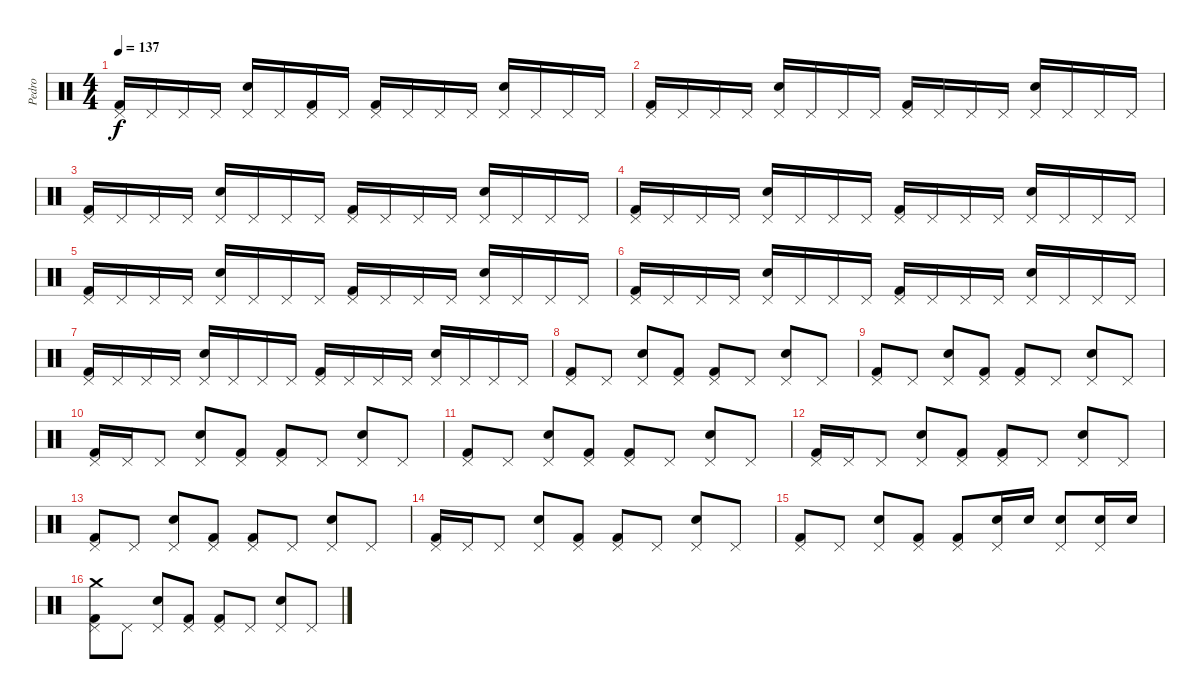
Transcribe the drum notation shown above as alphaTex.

\track ("Pedro" "Pedro") {instrument percussion}
\staff {score}
\articulation defaults
\ts (4 4)
\tempo 137
\clef neutral
\ks c
("Pedal Hi-Hat (hit)" "Kick (hit) 2").16{dy f} "Pedal Hi-Hat (hit)".16 "Pedal Hi-Hat (hit)".16 "Pedal Hi-Hat (hit)".16 ("Pedal Hi-Hat (hit)" "Snare (hit) 2").16 "Pedal Hi-Hat (hit)".16 ("Pedal Hi-Hat (hit)" "Kick (hit) 2").16 "Pedal Hi-Hat (hit)".16 ("Pedal Hi-Hat (hit)" "Kick (hit) 2").16 "Pedal Hi-Hat (hit)".16 "Pedal Hi-Hat (hit)".16 "Pedal Hi-Hat (hit)".16 ("Pedal Hi-Hat (hit)" "Snare (hit) 2").16 "Pedal Hi-Hat (hit)".16 "Pedal Hi-Hat (hit)".16 "Pedal Hi-Hat (hit)".16 |
("Pedal Hi-Hat (hit)" "Kick (hit) 2").16 "Pedal Hi-Hat (hit)".16 "Pedal Hi-Hat (hit)".16 "Pedal Hi-Hat (hit)".16 ("Pedal Hi-Hat (hit)" "Snare (hit) 2").16 "Pedal Hi-Hat (hit)".16 "Pedal Hi-Hat (hit)".16 "Pedal Hi-Hat (hit)".16 ("Pedal Hi-Hat (hit)" "Kick (hit) 2").16 "Pedal Hi-Hat (hit)".16 "Pedal Hi-Hat (hit)".16 "Pedal Hi-Hat (hit)".16 ("Pedal Hi-Hat (hit)" "Snare (hit) 2").16 "Pedal Hi-Hat (hit)".16 "Pedal Hi-Hat (hit)".16 "Pedal Hi-Hat (hit)".16 |
("Pedal Hi-Hat (hit)" "Kick (hit) 2").16 "Pedal Hi-Hat (hit)".16 "Pedal Hi-Hat (hit)".16 "Pedal Hi-Hat (hit)".16 ("Pedal Hi-Hat (hit)" "Snare (hit) 2").16 "Pedal Hi-Hat (hit)".16 "Pedal Hi-Hat (hit)".16 "Pedal Hi-Hat (hit)".16 ("Pedal Hi-Hat (hit)" "Kick (hit) 2").16 "Pedal Hi-Hat (hit)".16 "Pedal Hi-Hat (hit)".16 "Pedal Hi-Hat (hit)".16 ("Pedal Hi-Hat (hit)" "Snare (hit) 2").16 "Pedal Hi-Hat (hit)".16 "Pedal Hi-Hat (hit)".16 "Pedal Hi-Hat (hit)".16 |
("Pedal Hi-Hat (hit)" "Kick (hit) 2").16 "Pedal Hi-Hat (hit)".16 "Pedal Hi-Hat (hit)".16 "Pedal Hi-Hat (hit)".16 ("Pedal Hi-Hat (hit)" "Snare (hit) 2").16 "Pedal Hi-Hat (hit)".16 "Pedal Hi-Hat (hit)".16 "Pedal Hi-Hat (hit)".16 ("Pedal Hi-Hat (hit)" "Kick (hit) 2").16 "Pedal Hi-Hat (hit)".16 "Pedal Hi-Hat (hit)".16 "Pedal Hi-Hat (hit)".16 ("Pedal Hi-Hat (hit)" "Snare (hit) 2").16 "Pedal Hi-Hat (hit)".16 "Pedal Hi-Hat (hit)".16 "Pedal Hi-Hat (hit)".16 |
("Pedal Hi-Hat (hit)" "Kick (hit) 2").16 "Pedal Hi-Hat (hit)".16 "Pedal Hi-Hat (hit)".16 "Pedal Hi-Hat (hit)".16 ("Pedal Hi-Hat (hit)" "Snare (hit) 2").16 "Pedal Hi-Hat (hit)".16 "Pedal Hi-Hat (hit)".16 "Pedal Hi-Hat (hit)".16 ("Pedal Hi-Hat (hit)" "Kick (hit) 2").16 "Pedal Hi-Hat (hit)".16 "Pedal Hi-Hat (hit)".16 "Pedal Hi-Hat (hit)".16 ("Pedal Hi-Hat (hit)" "Snare (hit) 2").16 "Pedal Hi-Hat (hit)".16 "Pedal Hi-Hat (hit)".16 "Pedal Hi-Hat (hit)".16 |
("Pedal Hi-Hat (hit)" "Kick (hit) 2").16 "Pedal Hi-Hat (hit)".16 "Pedal Hi-Hat (hit)".16 "Pedal Hi-Hat (hit)".16 ("Pedal Hi-Hat (hit)" "Snare (hit) 2").16 "Pedal Hi-Hat (hit)".16 "Pedal Hi-Hat (hit)".16 "Pedal Hi-Hat (hit)".16 ("Pedal Hi-Hat (hit)" "Kick (hit) 2").16 "Pedal Hi-Hat (hit)".16 "Pedal Hi-Hat (hit)".16 "Pedal Hi-Hat (hit)".16 ("Pedal Hi-Hat (hit)" "Snare (hit) 2").16 "Pedal Hi-Hat (hit)".16 "Pedal Hi-Hat (hit)".16 "Pedal Hi-Hat (hit)".16 |
("Pedal Hi-Hat (hit)" "Kick (hit) 2").16 "Pedal Hi-Hat (hit)".16 "Pedal Hi-Hat (hit)".16 "Pedal Hi-Hat (hit)".16 ("Pedal Hi-Hat (hit)" "Snare (hit) 2").16 "Pedal Hi-Hat (hit)".16 "Pedal Hi-Hat (hit)".16 "Pedal Hi-Hat (hit)".16 ("Pedal Hi-Hat (hit)" "Kick (hit) 2").16 "Pedal Hi-Hat (hit)".16 "Pedal Hi-Hat (hit)".16 "Pedal Hi-Hat (hit)".16 ("Pedal Hi-Hat (hit)" "Snare (hit) 2").16 "Pedal Hi-Hat (hit)".16 "Pedal Hi-Hat (hit)".16 "Pedal Hi-Hat (hit)".16 |
("Pedal Hi-Hat (hit)" "Kick (hit) 2").8 "Pedal Hi-Hat (hit)".8 ("Pedal Hi-Hat (hit)" "Snare (hit) 2").8 ("Pedal Hi-Hat (hit)" "Kick (hit) 2").8 ("Pedal Hi-Hat (hit)" "Kick (hit) 2").8 "Pedal Hi-Hat (hit)".8 ("Pedal Hi-Hat (hit)" "Snare (hit) 2").8 "Pedal Hi-Hat (hit)".8 |
("Pedal Hi-Hat (hit)" "Kick (hit) 2").8 "Pedal Hi-Hat (hit)".8 ("Pedal Hi-Hat (hit)" "Snare (hit) 2").8 ("Pedal Hi-Hat (hit)" "Kick (hit) 2").8 ("Pedal Hi-Hat (hit)" "Kick (hit) 2").8 "Pedal Hi-Hat (hit)".8 ("Pedal Hi-Hat (hit)" "Snare (hit) 2").8 "Pedal Hi-Hat (hit)".8 |
("Pedal Hi-Hat (hit)" "Kick (hit) 2").16 "Pedal Hi-Hat (hit)".16 "Pedal Hi-Hat (hit)".8 ("Pedal Hi-Hat (hit)" "Snare (hit) 2").8 ("Pedal Hi-Hat (hit)" "Kick (hit) 2").8 ("Pedal Hi-Hat (hit)" "Kick (hit) 2").8 "Pedal Hi-Hat (hit)".8 ("Pedal Hi-Hat (hit)" "Snare (hit) 2").8 "Pedal Hi-Hat (hit)".8 |
("Kick (hit) 2" "Pedal Hi-Hat (hit)").8 "Pedal Hi-Hat (hit)".8 ("Snare (hit) 2" "Pedal Hi-Hat (hit)").8 ("Kick (hit) 2" "Pedal Hi-Hat (hit)").8 ("Kick (hit) 2" "Pedal Hi-Hat (hit)").8 "Pedal Hi-Hat (hit)".8 ("Snare (hit) 2" "Pedal Hi-Hat (hit)").8 "Pedal Hi-Hat (hit)".8 |
("Pedal Hi-Hat (hit)" "Kick (hit) 2").16 "Pedal Hi-Hat (hit)".16 "Pedal Hi-Hat (hit)".8 ("Pedal Hi-Hat (hit)" "Snare (hit) 2").8 ("Pedal Hi-Hat (hit)" "Kick (hit) 2").8 ("Pedal Hi-Hat (hit)" "Kick (hit) 2").8 "Pedal Hi-Hat (hit)".8 ("Pedal Hi-Hat (hit)" "Snare (hit) 2").8 "Pedal Hi-Hat (hit)".8 |
("Pedal Hi-Hat (hit)" "Kick (hit) 2").8 "Pedal Hi-Hat (hit)".8 ("Pedal Hi-Hat (hit)" "Snare (hit) 2").8 ("Pedal Hi-Hat (hit)" "Kick (hit) 2").8 ("Pedal Hi-Hat (hit)" "Kick (hit) 2").8 "Pedal Hi-Hat (hit)".8 ("Pedal Hi-Hat (hit)" "Snare (hit) 2").8 "Pedal Hi-Hat (hit)".8 |
("Pedal Hi-Hat (hit)" "Kick (hit) 2").16 "Pedal Hi-Hat (hit)".16 "Pedal Hi-Hat (hit)".8 ("Pedal Hi-Hat (hit)" "Snare (hit) 2").8 ("Pedal Hi-Hat (hit)" "Kick (hit) 2").8 ("Pedal Hi-Hat (hit)" "Kick (hit) 2").8 "Pedal Hi-Hat (hit)".8 ("Pedal Hi-Hat (hit)" "Snare (hit) 2").8 "Pedal Hi-Hat (hit)".8 |
("Pedal Hi-Hat (hit)" "Kick (hit) 2").8 "Pedal Hi-Hat (hit)".8 ("Pedal Hi-Hat (hit)" "Snare (hit) 2").8 ("Pedal Hi-Hat (hit)" "Kick (hit) 2").8 ("Pedal Hi-Hat (hit)" "Kick (hit) 2").8 ("Pedal Hi-Hat (hit)" "Snare (hit) 2").16 "Snare (hit) 2".16 ("Pedal Hi-Hat (hit)" "Snare (hit) 2").8 ("Snare (hit) 2" "Pedal Hi-Hat (hit)").16 "Snare (hit) 2".16 |
("Crash medium (hit)" "Pedal Hi-Hat (hit)" "Kick (hit) 2").8 "Pedal Hi-Hat (hit)".8 ("Pedal Hi-Hat (hit)" "Snare (hit) 2").8 ("Pedal Hi-Hat (hit)" "Kick (hit) 2").8 ("Pedal Hi-Hat (hit)" "Kick (hit) 2").8 "Pedal Hi-Hat (hit)".8 ("Pedal Hi-Hat (hit)" "Snare (hit) 2").8 "Pedal Hi-Hat (hit)".8
